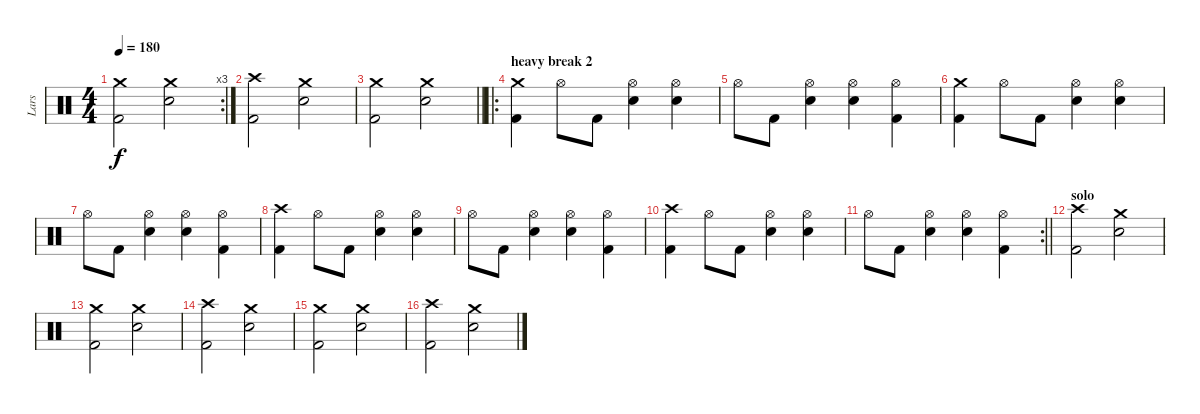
\track ("Lars" "Lars") {instrument percussion}
\staff {score}
\articulation defaults
\rc 3
\ts (4 4)
\tempo 180
\clef neutral
\ks c
("Crash medium (hit)" "Kick (hit) 2").2{dy f} ("Crash medium (hit)" "Snare (hit) 2").2 |
("Crash high (hit)" "Kick (hit) 2").2 ("Crash medium (hit)" "Snare (hit) 2").2 |
\barLineRight lightlight
("Crash medium (hit)" "Kick (hit) 2").2 ("Crash medium (hit)" "Snare (hit) 2").2 |
\ro
\section ("" "heavy break 2")
("Crash medium (hit)" "Kick (hit) 2").4 "Hi-Hat (open)".8 "Kick (hit) 2".8 ("Hi-Hat (open)" "Snare (hit) 2").4 ("Hi-Hat (open)" "Snare (hit) 2").4 |
"Hi-Hat (open)".8 "Kick (hit) 2".8 ("Hi-Hat (open)" "Snare (hit) 2").4 ("Hi-Hat (open)" "Snare (hit) 2").4 ("Hi-Hat (open)" "Kick (hit) 2").4 |
("Crash medium (hit)" "Kick (hit) 2").4 "Hi-Hat (open)".8 "Kick (hit) 2".8 ("Hi-Hat (open)" "Snare (hit) 2").4 ("Hi-Hat (open)" "Snare (hit) 2").4 |
"Hi-Hat (open)".8 "Kick (hit) 2".8 ("Hi-Hat (open)" "Snare (hit) 2").4 ("Hi-Hat (open)" "Snare (hit) 2").4 ("Hi-Hat (open)" "Kick (hit) 2").4 |
("Crash high (hit)" "Kick (hit) 2").4 "Hi-Hat (open)".8 "Kick (hit) 2".8 ("Hi-Hat (open)" "Snare (hit) 2").4 ("Hi-Hat (open)" "Snare (hit) 2").4 |
"Hi-Hat (open)".8 "Kick (hit) 2".8 ("Hi-Hat (open)" "Snare (hit) 2").4 ("Hi-Hat (open)" "Snare (hit) 2").4 ("Hi-Hat (open)" "Kick (hit) 2").4 |
("Crash high (hit)" "Kick (hit) 2").4 "Hi-Hat (open)".8 "Kick (hit) 2".8 ("Hi-Hat (open)" "Snare (hit) 2").4 ("Hi-Hat (open)" "Snare (hit) 2").4 |
\rc 2
\barLineRight lightlight "Hi-Hat (open)".8 "Kick (hit) 2".8
("Hi-Hat (open)" "Snare (hit) 2").4 ("Hi-Hat (open)" "Snare (hit) 2").4 ("Hi-Hat (open)" "Kick (hit) 2").4 |
\section ("" "solo")
("Crash high (hit)" "Kick (hit) 2").2 ("Crash medium (hit)" "Snare (hit) 2").2 |
("Crash medium (hit)" "Kick (hit) 2").2 ("Crash medium (hit)" "Snare (hit) 2").2 |
("Crash high (hit)" "Kick (hit) 2").2 ("Crash medium (hit)" "Snare (hit) 2").2 |
("Crash medium (hit)" "Kick (hit) 2").2 ("Crash medium (hit)" "Snare (hit) 2").2 |
("Crash high (hit)" "Kick (hit) 2").2 ("Crash medium (hit)" "Snare (hit) 2").2
